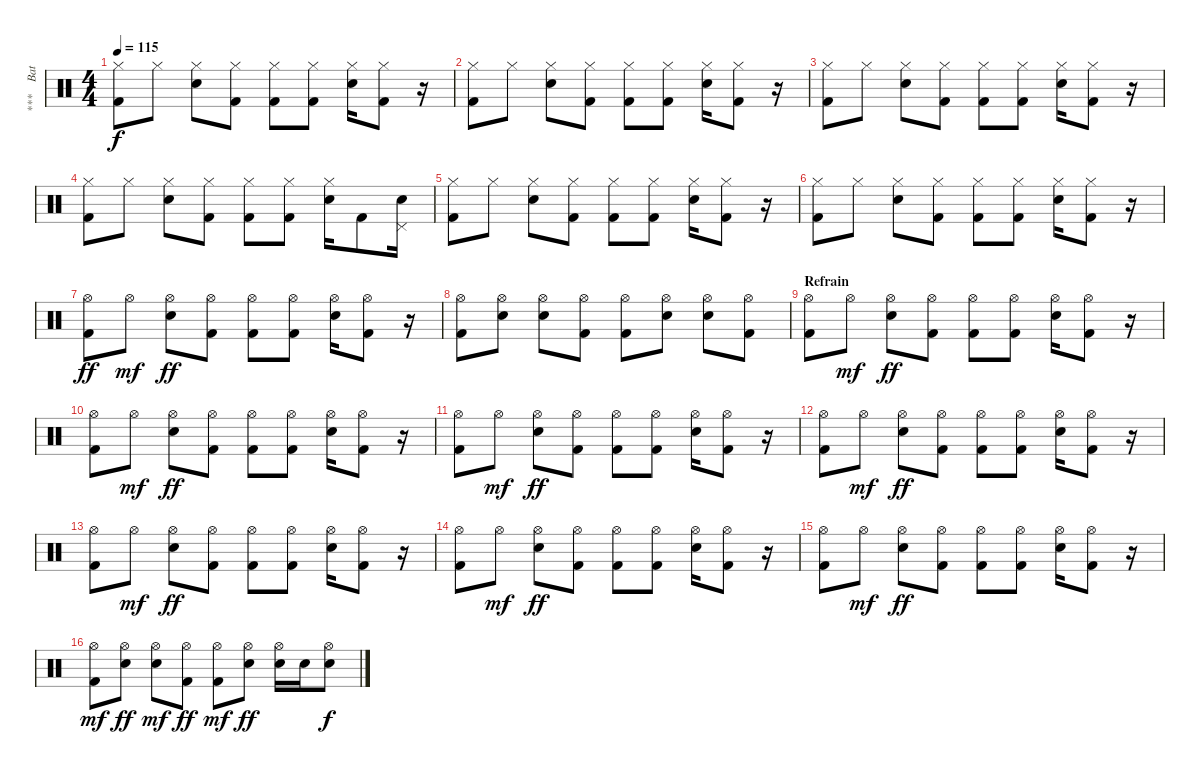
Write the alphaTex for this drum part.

\track ("***    Batterie     ***" "***    Bat") {instrument percussion}
\staff {score}
\articulation defaults
\ts (4 4)
\tempo 115
\clef neutral
\ks c
("Hi-Hat (closed)" "Kick (hit) 2").8{dy f} "Hi-Hat (closed)".8 ("Hi-Hat (closed)" "Snare (hit) 2").8 ("Hi-Hat (closed)" "Kick (hit) 2").8 ("Hi-Hat (closed)" "Kick (hit) 2").8 ("Hi-Hat (closed)" "Kick (hit) 2").8 ("Hi-Hat (closed)" "Snare (hit) 2").16 ("Hi-Hat (closed)" "Kick (hit) 2").8 r.16 |
("Hi-Hat (closed)" "Kick (hit) 2").8 "Hi-Hat (closed)".8 ("Hi-Hat (closed)" "Snare (hit) 2").8 ("Hi-Hat (closed)" "Kick (hit) 2").8 ("Hi-Hat (closed)" "Kick (hit) 2").8 ("Hi-Hat (closed)" "Kick (hit) 2").8 ("Hi-Hat (closed)" "Snare (hit) 2").16 ("Hi-Hat (closed)" "Kick (hit) 2").8 r.16 |
("Hi-Hat (closed)" "Kick (hit) 2").8 "Hi-Hat (closed)".8 ("Hi-Hat (closed)" "Snare (hit) 2").8 ("Hi-Hat (closed)" "Kick (hit) 2").8 ("Hi-Hat (closed)" "Kick (hit) 2").8 ("Hi-Hat (closed)" "Kick (hit) 2").8 ("Hi-Hat (closed)" "Snare (hit) 2").16 ("Hi-Hat (closed)" "Kick (hit) 2").8 r.16 |
("Hi-Hat (closed)" "Kick (hit) 2").8 "Hi-Hat (closed)".8 ("Hi-Hat (closed)" "Snare (hit) 2").8 ("Hi-Hat (closed)" "Kick (hit) 2").8 ("Hi-Hat (closed)" "Kick (hit) 2").8 ("Hi-Hat (closed)" "Kick (hit) 2").8 ("Hi-Hat (closed)" "Snare (hit) 2").16 "Kick (hit) 2".8 ("Snare (hit) 2" "Pedal Hi-Hat (hit)").16 |
("Hi-Hat (closed)" "Kick (hit) 2").8 "Hi-Hat (closed)".8 ("Hi-Hat (closed)" "Snare (hit) 2").8 ("Hi-Hat (closed)" "Kick (hit) 2").8 ("Hi-Hat (closed)" "Kick (hit) 2").8 ("Hi-Hat (closed)" "Kick (hit) 2").8 ("Hi-Hat (closed)" "Snare (hit) 2").16 ("Hi-Hat (closed)" "Kick (hit) 2").8 r.16 |
("Hi-Hat (closed)" "Kick (hit) 2").8 "Hi-Hat (closed)".8 ("Hi-Hat (closed)" "Snare (hit) 2").8 ("Hi-Hat (closed)" "Kick (hit) 2").8 ("Hi-Hat (closed)" "Kick (hit) 2").8 ("Hi-Hat (closed)" "Kick (hit) 2").8 ("Hi-Hat (closed)" "Snare (hit) 2").16 ("Hi-Hat (closed)" "Kick (hit) 2").8 r.16 |
("Hi-Hat (open)" "Kick (hit) 2").8{dy ff} "Hi-Hat (open)".8{dy mf} ("Hi-Hat (open)" "Snare (hit) 2").8{dy ff} ("Hi-Hat (open)" "Kick (hit) 2").8 ("Hi-Hat (open)" "Kick (hit) 2").8 ("Hi-Hat (open)" "Kick (hit) 2").8 ("Hi-Hat (open)" "Snare (hit) 2").16 ("Hi-Hat (open)" "Kick (hit) 2").8 r.16 |
("Hi-Hat (open)" "Kick (hit) 2").8 ("Hi-Hat (open)" "Snare (hit) 2").8 ("Hi-Hat (open)" "Snare (hit) 2").8 ("Hi-Hat (open)" "Kick (hit) 2").8 ("Hi-Hat (open)" "Kick (hit) 2").8 ("Hi-Hat (open)" "Snare (hit) 2").8 ("Hi-Hat (open)" "Snare (hit) 2").8 ("Hi-Hat (open)" "Kick (hit) 2").8 |
\section ("" "Refrain")
("Hi-Hat (open)" "Kick (hit) 2").8 "Hi-Hat (open)".8{dy mf} ("Hi-Hat (open)" "Snare (hit) 2").8{dy ff} ("Hi-Hat (open)" "Kick (hit) 2").8 ("Hi-Hat (open)" "Kick (hit) 2").8 ("Hi-Hat (open)" "Kick (hit) 2").8 ("Hi-Hat (open)" "Snare (hit) 2").16 ("Hi-Hat (open)" "Kick (hit) 2").8 r.16 |
("Hi-Hat (open)" "Kick (hit) 2").8 "Hi-Hat (open)".8{dy mf} ("Hi-Hat (open)" "Snare (hit) 2").8{dy ff} ("Hi-Hat (open)" "Kick (hit) 2").8 ("Hi-Hat (open)" "Kick (hit) 2").8 ("Hi-Hat (open)" "Kick (hit) 2").8 ("Hi-Hat (open)" "Snare (hit) 2").16 ("Hi-Hat (open)" "Kick (hit) 2").8 r.16 |
("Hi-Hat (open)" "Kick (hit) 2").8 "Hi-Hat (open)".8{dy mf} ("Hi-Hat (open)" "Snare (hit) 2").8{dy ff} ("Hi-Hat (open)" "Kick (hit) 2").8 ("Hi-Hat (open)" "Kick (hit) 2").8 ("Hi-Hat (open)" "Kick (hit) 2").8 ("Hi-Hat (open)" "Snare (hit) 2").16 ("Hi-Hat (open)" "Kick (hit) 2").8 r.16 |
("Hi-Hat (open)" "Kick (hit) 2").8 "Hi-Hat (open)".8{dy mf} ("Hi-Hat (open)" "Snare (hit) 2").8{dy ff} ("Hi-Hat (open)" "Kick (hit) 2").8 ("Hi-Hat (open)" "Kick (hit) 2").8 ("Hi-Hat (open)" "Kick (hit) 2").8 ("Hi-Hat (open)" "Snare (hit) 2").16 ("Hi-Hat (open)" "Kick (hit) 2").8 r.16 |
("Hi-Hat (open)" "Kick (hit) 2").8 "Hi-Hat (open)".8{dy mf} ("Hi-Hat (open)" "Snare (hit) 2").8{dy ff} ("Hi-Hat (open)" "Kick (hit) 2").8 ("Hi-Hat (open)" "Kick (hit) 2").8 ("Hi-Hat (open)" "Kick (hit) 2").8 ("Hi-Hat (open)" "Snare (hit) 2").16 ("Hi-Hat (open)" "Kick (hit) 2").8 r.16 |
("Hi-Hat (open)" "Kick (hit) 2").8 "Hi-Hat (open)".8{dy mf} ("Hi-Hat (open)" "Snare (hit) 2").8{dy ff} ("Hi-Hat (open)" "Kick (hit) 2").8 ("Hi-Hat (open)" "Kick (hit) 2").8 ("Hi-Hat (open)" "Kick (hit) 2").8 ("Hi-Hat (open)" "Snare (hit) 2").16 ("Hi-Hat (open)" "Kick (hit) 2").8 r.16 |
("Hi-Hat (open)" "Kick (hit) 2").8 "Hi-Hat (open)".8{dy mf} ("Hi-Hat (open)" "Snare (hit) 2").8{dy ff} ("Hi-Hat (open)" "Kick (hit) 2").8 ("Hi-Hat (open)" "Kick (hit) 2").8 ("Hi-Hat (open)" "Kick (hit) 2").8 ("Hi-Hat (open)" "Snare (hit) 2").16 ("Hi-Hat (open)" "Kick (hit) 2").8 r.16 |
("Hi-Hat (open)" "Kick (hit) 2").8{dy mf} ("Hi-Hat (open)" "Snare (hit) 2").8{dy ff} ("Hi-Hat (open)" "Snare (hit) 2").8{dy mf} ("Hi-Hat (open)" "Kick (hit) 2").8{dy ff} ("Hi-Hat (open)" "Kick (hit) 2").8{dy mf} ("Hi-Hat (open)" "Snare (hit) 2").8{dy ff} ("Hi-Hat (open)" "Snare (hit) 2").16 "Snare (hit) 2".16 ("Hi-Hat (open)" "Snare (hit) 2").8{dy f}
